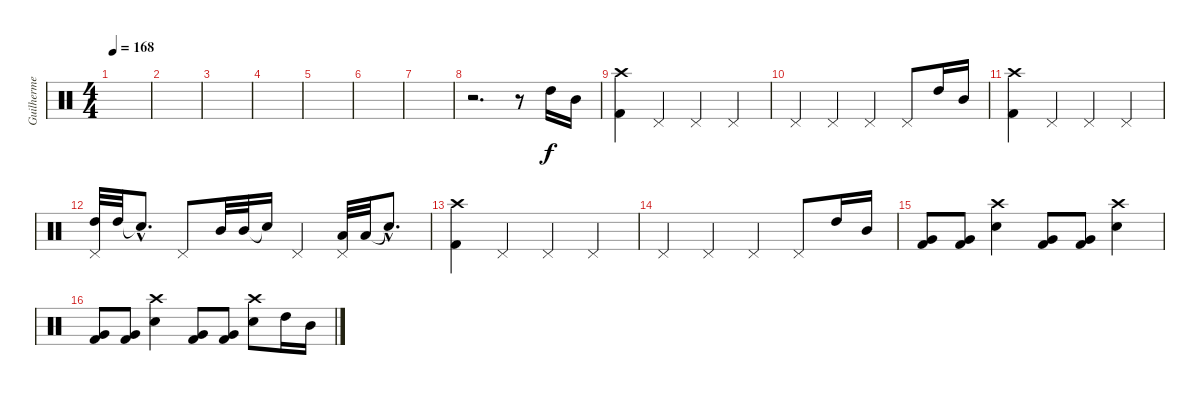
\track ("Guilherme" "Guilherme") {instrument percussion}
\staff {score}
\articulation defaults
\ts (4 4)
\tempo 168
\clef neutral
\ks c
|
|
|
|
|
|
|
r.2{d} r.8 "High Tom (hit)".16 "Mid Tom (hit)".16 |
("Crash high (hit)" "Kick (hit) 2").4 "Pedal Hi-Hat (hit)".4 "Pedal Hi-Hat (hit)".4 "Pedal Hi-Hat (hit)".4 |
"Pedal Hi-Hat (hit)".4 "Pedal Hi-Hat (hit)".4 "Pedal Hi-Hat (hit)".4 "Pedal Hi-Hat (hit)".8 "High Tom (hit)".16 "Mid Tom (hit)".16 |
("Crash high (hit)" "Kick (hit) 2").4 "Pedal Hi-Hat (hit)".4 "Pedal Hi-Hat (hit)".4 "Pedal Hi-Hat (hit)".4 |
("Pedal Hi-Hat (hit)" "High Tom (hit)").32 "High Tom (hit)".32 "Snare (hit)"{hac t}.8{d} "Pedal Hi-Hat (hit)".8 "Mid Tom (hit)".32 "Mid Tom (hit)".32 "Snare (hit)"{t}.16 "Pedal Hi-Hat (hit)".4 ("Pedal Hi-Hat (hit)" "Low Tom (hit)").32 "Low Tom (hit)".32 "Snare (hit)"{hac t}.8{d} |
("Crash high (hit)" "Kick (hit) 2").4 "Pedal Hi-Hat (hit)".4 "Pedal Hi-Hat (hit)".4 "Pedal Hi-Hat (hit)".4 |
"Pedal Hi-Hat (hit)".4 "Pedal Hi-Hat (hit)".4 "Pedal Hi-Hat (hit)".4 "Pedal Hi-Hat (hit)".8 "High Tom (hit)".16 "Mid Tom (hit)".16 |
("Very Low Tom (hit)" "Kick (hit) 2").8 ("Very Low Tom (hit)" "Kick (hit) 2").8 ("Crash high (hit)" "Snare (hit) 2").4 ("Very Low Tom (hit)" "Kick (hit) 2").8 ("Very Low Tom (hit)" "Kick (hit) 2").8 ("Crash high (hit)" "Snare (hit) 2").4 |
("Very Low Tom (hit)" "Kick (hit) 2").8 ("Very Low Tom (hit)" "Kick (hit) 2").8 ("Crash high (hit)" "Snare (hit) 2").4 ("Very Low Tom (hit)" "Kick (hit) 2").8 ("Very Low Tom (hit)" "Kick (hit) 2").8 ("Crash high (hit)" "Snare (hit) 2").8 "High Tom (hit)".16 "Mid Tom (hit)".16
